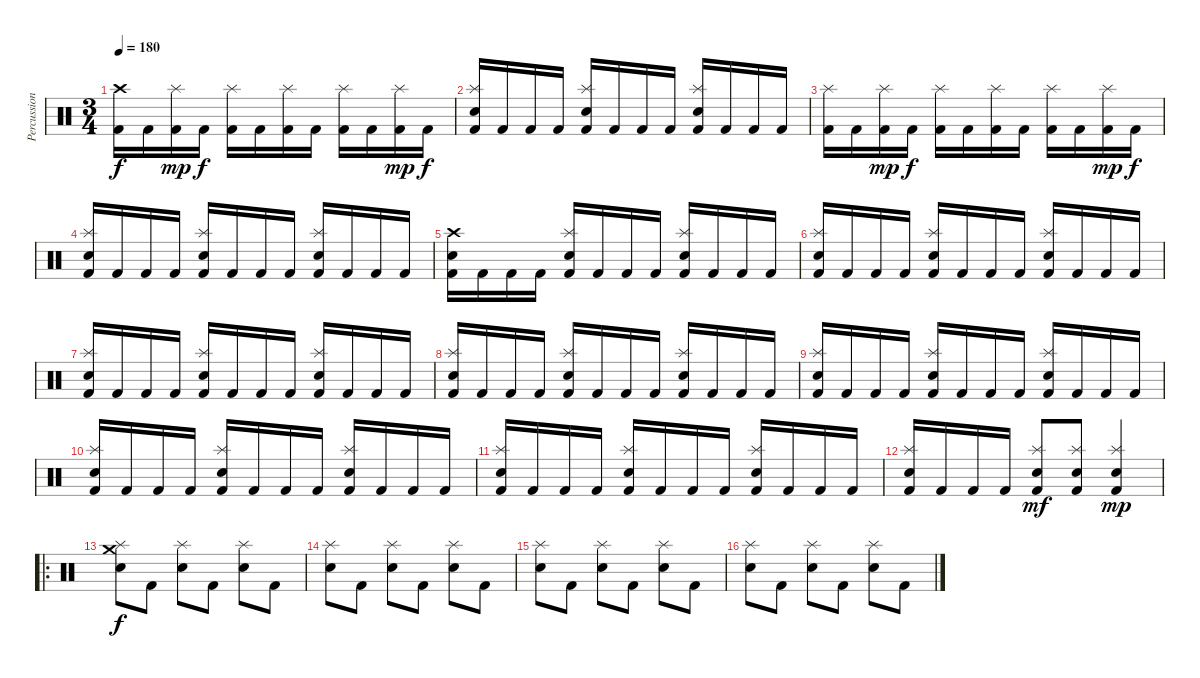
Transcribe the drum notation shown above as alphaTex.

\track ("Percussion" "Percussion") {instrument percussion}
\staff {score}
\articulation defaults
\ts (3 4)
\tempo 180
\clef neutral
\ks c
("Crash high (hit)" "Kick (hit) 2").16{dy f} "Kick (hit) 2".16 ("Splash (hit)" "Kick (hit) 2").16{dy mp} "Kick (hit) 2".16{dy f} ("Splash (hit)" "Kick (hit) 2").16 "Kick (hit) 2".16 ("Splash (hit)" "Kick (hit) 2").16 "Kick (hit) 2".16 ("Splash (hit)" "Kick (hit) 2").16 "Kick (hit) 2".16 ("Splash (hit)" "Kick (hit) 2").16{dy mp} "Kick (hit) 2".16{dy f} |
("Splash (hit)" "Snare (hit) 2" "Kick (hit) 2").16 "Kick (hit) 2".16 "Kick (hit) 2".16 "Kick (hit) 2".16 ("Splash (hit)" "Snare (hit) 2" "Kick (hit) 2").16 "Kick (hit) 2".16 "Kick (hit) 2".16 "Kick (hit) 2".16 ("Splash (hit)" "Snare (hit) 2" "Kick (hit) 2").16 "Kick (hit) 2".16 "Kick (hit) 2".16 "Kick (hit) 2".16 |
("Splash (hit)" "Kick (hit) 2").16 "Kick (hit) 2".16 ("Splash (hit)" "Kick (hit) 2").16{dy mp} "Kick (hit) 2".16{dy f} ("Splash (hit)" "Kick (hit) 2").16 "Kick (hit) 2".16 ("Splash (hit)" "Kick (hit) 2").16 "Kick (hit) 2".16 ("Splash (hit)" "Kick (hit) 2").16 "Kick (hit) 2".16 ("Splash (hit)" "Kick (hit) 2").16{dy mp} "Kick (hit) 2".16{dy f} |
("Splash (hit)" "Snare (hit) 2" "Kick (hit) 2").16 "Kick (hit) 2".16 "Kick (hit) 2".16 "Kick (hit) 2".16 ("Splash (hit)" "Snare (hit) 2" "Kick (hit) 2").16 "Kick (hit) 2".16 "Kick (hit) 2".16 "Kick (hit) 2".16 ("Splash (hit)" "Snare (hit) 2" "Kick (hit) 2").16 "Kick (hit) 2".16 "Kick (hit) 2".16 "Kick (hit) 2".16 |
("Crash high (hit)" "Snare (hit) 2" "Kick (hit) 2").16 "Kick (hit) 2".16 "Kick (hit) 2".16 "Kick (hit) 2".16 ("Splash (hit)" "Snare (hit) 2" "Kick (hit) 2").16 "Kick (hit) 2".16 "Kick (hit) 2".16 "Kick (hit) 2".16 ("Splash (hit)" "Snare (hit) 2" "Kick (hit) 2").16 "Kick (hit) 2".16 "Kick (hit) 2".16 "Kick (hit) 2".16 |
("Splash (hit)" "Snare (hit) 2" "Kick (hit) 2").16 "Kick (hit) 2".16 "Kick (hit) 2".16 "Kick (hit) 2".16 ("Splash (hit)" "Snare (hit) 2" "Kick (hit) 2").16 "Kick (hit) 2".16 "Kick (hit) 2".16 "Kick (hit) 2".16 ("Splash (hit)" "Snare (hit) 2" "Kick (hit) 2").16 "Kick (hit) 2".16 "Kick (hit) 2".16 "Kick (hit) 2".16 |
("Splash (hit)" "Snare (hit) 2" "Kick (hit) 2").16 "Kick (hit) 2".16 "Kick (hit) 2".16 "Kick (hit) 2".16 ("Splash (hit)" "Snare (hit) 2" "Kick (hit) 2").16 "Kick (hit) 2".16 "Kick (hit) 2".16 "Kick (hit) 2".16 ("Splash (hit)" "Snare (hit) 2" "Kick (hit) 2").16 "Kick (hit) 2".16 "Kick (hit) 2".16 "Kick (hit) 2".16 |
("Splash (hit)" "Snare (hit) 2" "Kick (hit) 2").16 "Kick (hit) 2".16 "Kick (hit) 2".16 "Kick (hit) 2".16 ("Splash (hit)" "Snare (hit) 2" "Kick (hit) 2").16 "Kick (hit) 2".16 "Kick (hit) 2".16 "Kick (hit) 2".16 ("Splash (hit)" "Snare (hit) 2" "Kick (hit) 2").16 "Kick (hit) 2".16 "Kick (hit) 2".16 "Kick (hit) 2".16 |
("Splash (hit)" "Snare (hit) 2" "Kick (hit) 2").16 "Kick (hit) 2".16 "Kick (hit) 2".16 "Kick (hit) 2".16 ("Splash (hit)" "Snare (hit) 2" "Kick (hit) 2").16 "Kick (hit) 2".16 "Kick (hit) 2".16 "Kick (hit) 2".16 ("Splash (hit)" "Snare (hit) 2" "Kick (hit) 2").16 "Kick (hit) 2".16 "Kick (hit) 2".16 "Kick (hit) 2".16 |
("Splash (hit)" "Snare (hit) 2" "Kick (hit) 2").16 "Kick (hit) 2".16 "Kick (hit) 2".16 "Kick (hit) 2".16 ("Splash (hit)" "Snare (hit) 2" "Kick (hit) 2").16 "Kick (hit) 2".16 "Kick (hit) 2".16 "Kick (hit) 2".16 ("Splash (hit)" "Snare (hit) 2" "Kick (hit) 2").16 "Kick (hit) 2".16 "Kick (hit) 2".16 "Kick (hit) 2".16 |
("Splash (hit)" "Snare (hit) 2" "Kick (hit) 2").16 "Kick (hit) 2".16 "Kick (hit) 2".16 "Kick (hit) 2".16 ("Splash (hit)" "Snare (hit) 2" "Kick (hit) 2").16 "Kick (hit) 2".16 "Kick (hit) 2".16 "Kick (hit) 2".16 ("Splash (hit)" "Snare (hit) 2" "Kick (hit) 2").16 "Kick (hit) 2".16 "Kick (hit) 2".16 "Kick (hit) 2".16 |
("Splash (hit)" "Snare (hit) 2" "Kick (hit) 2").16 "Kick (hit) 2".16 "Kick (hit) 2".16 "Kick (hit) 2".16 ("Splash (hit)" "Snare (hit) 2" "Kick (hit) 2").8{dy mf} ("Splash (hit)" "Snare (hit) 2" "Kick (hit) 2").8 ("Splash (hit)" "Snare (hit) 2" "Kick (hit) 2").4{dy mp} |
\ro
("Crash medium (hit)" "Splash (hit)" "Snare (hit) 2").8{dy f} "Kick (hit) 2".8 ("Splash (hit)" "Snare (hit) 2").8 "Kick (hit) 2".8 ("Splash (hit)" "Snare (hit) 2").8 "Kick (hit) 2".8 |
("Splash (hit)" "Snare (hit) 2").8 "Kick (hit) 2".8 ("Splash (hit)" "Snare (hit) 2").8 "Kick (hit) 2".8 ("Splash (hit)" "Snare (hit) 2").8 "Kick (hit) 2".8 |
("Splash (hit)" "Snare (hit) 2").8 "Kick (hit) 2".8 ("Splash (hit)" "Snare (hit) 2").8 "Kick (hit) 2".8 ("Splash (hit)" "Snare (hit) 2").8 "Kick (hit) 2".8 |
("Splash (hit)" "Snare (hit) 2").8 "Kick (hit) 2".8 ("Splash (hit)" "Snare (hit) 2").8 "Kick (hit) 2".8 ("Splash (hit)" "Snare (hit) 2").8 "Kick (hit) 2".8
